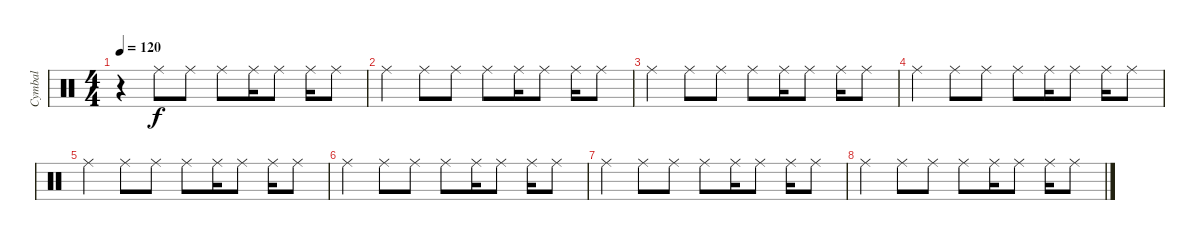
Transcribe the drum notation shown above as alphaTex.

\track ("Cymbal" "Cymbal") {instrument percussion}
\staff {score}
\articulation defaults
\ts (4 4)
\tempo 120
\clef neutral
\ks c
r.4{dy f} "Ride (middle)".8 "Ride (middle)".8 "Ride (middle)".8 "Ride (middle)".16 "Ride (middle)".8 "Ride (middle)".16 "Ride (middle)".8 |
"Ride (middle)".4 "Ride (middle)".8 "Ride (middle)".8 "Ride (middle)".8 "Ride (middle)".16 "Ride (middle)".8 "Ride (middle)".16 "Ride (middle)".8 |
"Ride (middle)".4 "Ride (middle)".8 "Ride (middle)".8 "Ride (middle)".8 "Ride (middle)".16 "Ride (middle)".8 "Ride (middle)".16 "Ride (middle)".8 |
"Ride (middle)".4 "Ride (middle)".8 "Ride (middle)".8 "Ride (middle)".8 "Ride (middle)".16 "Ride (middle)".8 "Ride (middle)".16 "Ride (middle)".8 |
"Ride (middle)".4 "Ride (middle)".8 "Ride (middle)".8 "Ride (middle)".8 "Ride (middle)".16 "Ride (middle)".8 "Ride (middle)".16 "Ride (middle)".8 |
"Ride (middle)".4 "Ride (middle)".8 "Ride (middle)".8 "Ride (middle)".8 "Ride (middle)".16 "Ride (middle)".8 "Ride (middle)".16 "Ride (middle)".8 |
"Ride (middle)".4 "Ride (middle)".8 "Ride (middle)".8 "Ride (middle)".8 "Ride (middle)".16 "Ride (middle)".8 "Ride (middle)".16 "Ride (middle)".8 |
"Ride (middle)".4 "Ride (middle)".8 "Ride (middle)".8 "Ride (middle)".8 "Ride (middle)".16 "Ride (middle)".8 "Ride (middle)".16 "Ride (middle)".8
